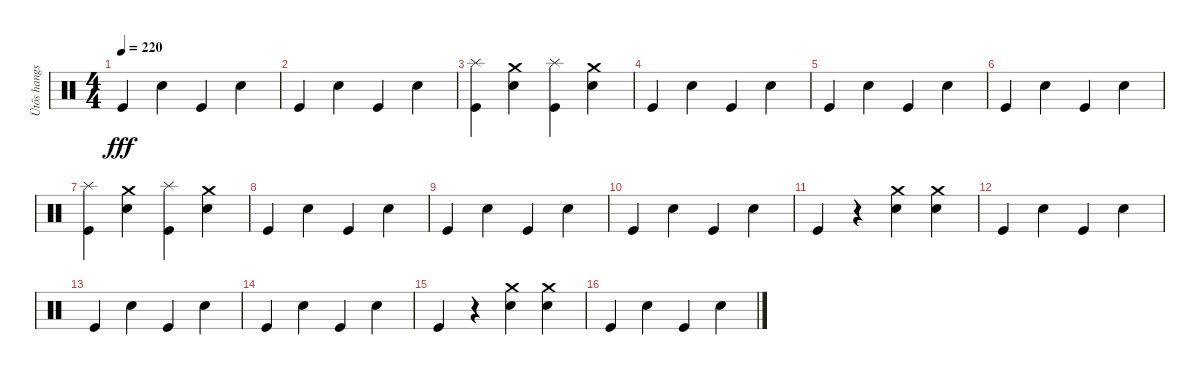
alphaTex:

\track ("Ütős hangszer" "Ütős hangs") {instrument percussion}
\staff {score}
\articulation defaults
\ts (4 4)
\tempo 220
\clef neutral
\ks c "Kick (hit)".4{dy fff} "Snare (hit) 2".4 "Kick (hit)".4 "Snare (hit) 2".4
|
"Kick (hit)".4 "Snare (hit) 2".4 "Kick (hit)".4 "Snare (hit) 2".4 |
("Splash (hit)" "Kick (hit)").4 ("Crash medium (hit)" "Snare (hit) 2").4 ("Splash (hit)" "Kick (hit)").4 ("Crash medium (hit)" "Snare (hit) 2").4 |
"Kick (hit)".4 "Snare (hit) 2".4 "Kick (hit)".4 "Snare (hit) 2".4 |
"Kick (hit)".4 "Snare (hit) 2".4 "Kick (hit)".4 "Snare (hit) 2".4 |
"Kick (hit)".4 "Snare (hit) 2".4 "Kick (hit)".4 "Snare (hit) 2".4 |
("Splash (hit)" "Kick (hit)").4 ("Crash medium (hit)" "Snare (hit) 2").4 ("Splash (hit)" "Kick (hit)").4 ("Crash medium (hit)" "Snare (hit) 2").4 |
"Kick (hit)".4 "Snare (hit) 2".4 "Kick (hit)".4 "Snare (hit) 2".4 |
"Kick (hit)".4 "Snare (hit) 2".4 "Kick (hit)".4 "Snare (hit) 2".4 |
"Kick (hit)".4 "Snare (hit) 2".4 "Kick (hit)".4 "Snare (hit) 2".4 |
"Kick (hit)".4 r.4 ("Crash medium (hit)" "Snare (hit) 2").4 ("Crash medium (hit)" "Snare (hit) 2").4 |
"Kick (hit)".4 "Snare (hit) 2".4 "Kick (hit)".4 "Snare (hit) 2".4 |
"Kick (hit)".4 "Snare (hit) 2".4 "Kick (hit)".4 "Snare (hit) 2".4 |
"Kick (hit)".4 "Snare (hit) 2".4 "Kick (hit)".4 "Snare (hit) 2".4 |
"Kick (hit)".4 r.4 ("Crash medium (hit)" "Snare (hit) 2").4 ("Crash medium (hit)" "Snare (hit) 2").4 |
"Kick (hit)".4 "Snare (hit) 2".4 "Kick (hit)".4 "Snare (hit) 2".4
